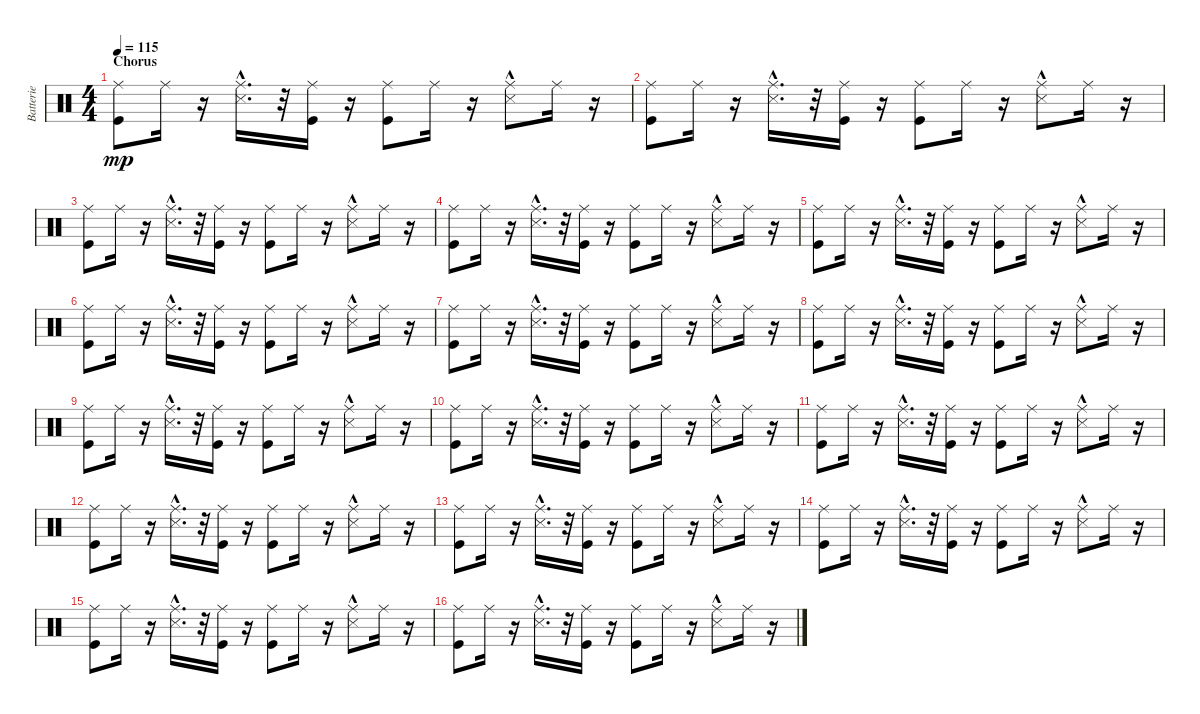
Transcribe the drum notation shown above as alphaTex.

\track ("Batterie" "Batterie") {instrument percussion}
\staff {score}
\articulation defaults
\ts (4 4)
\section ("" "Chorus")
\tempo 115
\clef neutral
\ks c
("Kick (hit)" "Ride (middle)").8{dy mp} "Ride (middle)".16 r.16 ("Snare (side stick) 3"{hac} "Ride (middle)").16{d} r.32 ("Ride (middle)" "Kick (hit)").16 r.16 ("Ride (middle)" "Kick (hit)").8 "Ride (middle)".16 r.16 ("Snare (side stick) 3"{hac} "Ride (middle)").8 "Ride (middle)".16 r.16 |
("Kick (hit)" "Ride (middle)").8 "Ride (middle)".16 r.16 ("Snare (side stick) 3"{hac} "Ride (middle)").16{d} r.32 ("Ride (middle)" "Kick (hit)").16 r.16 ("Ride (middle)" "Kick (hit)").8 "Ride (middle)".16 r.16 ("Snare (side stick) 3"{hac} "Ride (middle)").8 "Ride (middle)".16 r.16 |
("Kick (hit)" "Ride (middle)").8 "Ride (middle)".16 r.16 ("Snare (side stick) 3"{hac} "Ride (middle)").16{d} r.32 ("Ride (middle)" "Kick (hit)").16 r.16 ("Ride (middle)" "Kick (hit)").8 "Ride (middle)".16 r.16 ("Snare (side stick) 3"{hac} "Ride (middle)").8 "Ride (middle)".16 r.16 |
("Kick (hit)" "Ride (middle)").8 "Ride (middle)".16 r.16 ("Snare (side stick) 3"{hac} "Ride (middle)").16{d} r.32 ("Ride (middle)" "Kick (hit)").16 r.16 ("Ride (middle)" "Kick (hit)").8 "Ride (middle)".16 r.16 ("Snare (side stick) 3"{hac} "Ride (middle)").8 "Ride (middle)".16 r.16 |
("Kick (hit)" "Ride (middle)").8 "Ride (middle)".16 r.16 ("Snare (side stick) 3"{hac} "Ride (middle)").16{d} r.32 ("Ride (middle)" "Kick (hit)").16 r.16 ("Ride (middle)" "Kick (hit)").8 "Ride (middle)".16 r.16 ("Snare (side stick) 3"{hac} "Ride (middle)").8 "Ride (middle)".16 r.16 |
("Kick (hit)" "Ride (middle)").8 "Ride (middle)".16 r.16 ("Snare (side stick) 3"{hac} "Ride (middle)").16{d} r.32 ("Ride (middle)" "Kick (hit)").16 r.16 ("Ride (middle)" "Kick (hit)").8 "Ride (middle)".16 r.16 ("Snare (side stick) 3"{hac} "Ride (middle)").8 "Ride (middle)".16 r.16 |
("Kick (hit)" "Ride (middle)").8 "Ride (middle)".16 r.16 ("Snare (side stick) 3"{hac} "Ride (middle)").16{d} r.32 ("Ride (middle)" "Kick (hit)").16 r.16 ("Ride (middle)" "Kick (hit)").8 "Ride (middle)".16 r.16 ("Snare (side stick) 3"{hac} "Ride (middle)").8 "Ride (middle)".16 r.16 |
("Kick (hit)" "Ride (middle)").8 "Ride (middle)".16 r.16 ("Snare (side stick) 3"{hac} "Ride (middle)").16{d} r.32 ("Ride (middle)" "Kick (hit)").16 r.16 ("Ride (middle)" "Kick (hit)").8 "Ride (middle)".16 r.16 ("Snare (side stick) 3"{hac} "Ride (middle)").8 "Ride (middle)".16 r.16 |
("Kick (hit)" "Ride (middle)").8 "Ride (middle)".16 r.16 ("Snare (side stick) 3"{hac} "Ride (middle)").16{d} r.32 ("Ride (middle)" "Kick (hit)").16 r.16 ("Ride (middle)" "Kick (hit)").8 "Ride (middle)".16 r.16 ("Snare (side stick) 3"{hac} "Ride (middle)").8 "Ride (middle)".16 r.16 |
("Kick (hit)" "Ride (middle)").8 "Ride (middle)".16 r.16 ("Snare (side stick) 3"{hac} "Ride (middle)").16{d} r.32 ("Ride (middle)" "Kick (hit)").16 r.16 ("Ride (middle)" "Kick (hit)").8 "Ride (middle)".16 r.16 ("Snare (side stick) 3"{hac} "Ride (middle)").8 "Ride (middle)".16 r.16 |
("Kick (hit)" "Ride (middle)").8 "Ride (middle)".16 r.16 ("Snare (side stick) 3"{hac} "Ride (middle)").16{d} r.32 ("Ride (middle)" "Kick (hit)").16 r.16 ("Ride (middle)" "Kick (hit)").8 "Ride (middle)".16 r.16 ("Snare (side stick) 3"{hac} "Ride (middle)").8 "Ride (middle)".16 r.16 |
("Kick (hit)" "Ride (middle)").8 "Ride (middle)".16 r.16 ("Snare (side stick) 3"{hac} "Ride (middle)").16{d} r.32 ("Ride (middle)" "Kick (hit)").16 r.16 ("Ride (middle)" "Kick (hit)").8 "Ride (middle)".16 r.16 ("Snare (side stick) 3"{hac} "Ride (middle)").8 "Ride (middle)".16 r.16 |
("Kick (hit)" "Ride (middle)").8 "Ride (middle)".16 r.16 ("Snare (side stick) 3"{hac} "Ride (middle)").16{d} r.32 ("Ride (middle)" "Kick (hit)").16 r.16 ("Ride (middle)" "Kick (hit)").8 "Ride (middle)".16 r.16 ("Snare (side stick) 3"{hac} "Ride (middle)").8 "Ride (middle)".16 r.16 |
("Kick (hit)" "Ride (middle)").8 "Ride (middle)".16 r.16 ("Snare (side stick) 3"{hac} "Ride (middle)").16{d} r.32 ("Ride (middle)" "Kick (hit)").16 r.16 ("Ride (middle)" "Kick (hit)").8 "Ride (middle)".16 r.16 ("Snare (side stick) 3"{hac} "Ride (middle)").8 "Ride (middle)".16 r.16 |
("Kick (hit)" "Ride (middle)").8 "Ride (middle)".16 r.16 ("Snare (side stick) 3"{hac} "Ride (middle)").16{d} r.32 ("Ride (middle)" "Kick (hit)").16 r.16 ("Ride (middle)" "Kick (hit)").8 "Ride (middle)".16 r.16 ("Snare (side stick) 3"{hac} "Ride (middle)").8 "Ride (middle)".16 r.16 |
("Kick (hit)" "Ride (middle)").8 "Ride (middle)".16 r.16 ("Snare (side stick) 3"{hac} "Ride (middle)").16{d} r.32 ("Ride (middle)" "Kick (hit)").16 r.16 ("Ride (middle)" "Kick (hit)").8 "Ride (middle)".16 r.16 ("Snare (side stick) 3"{hac} "Ride (middle)").8 "Ride (middle)".16 r.16
